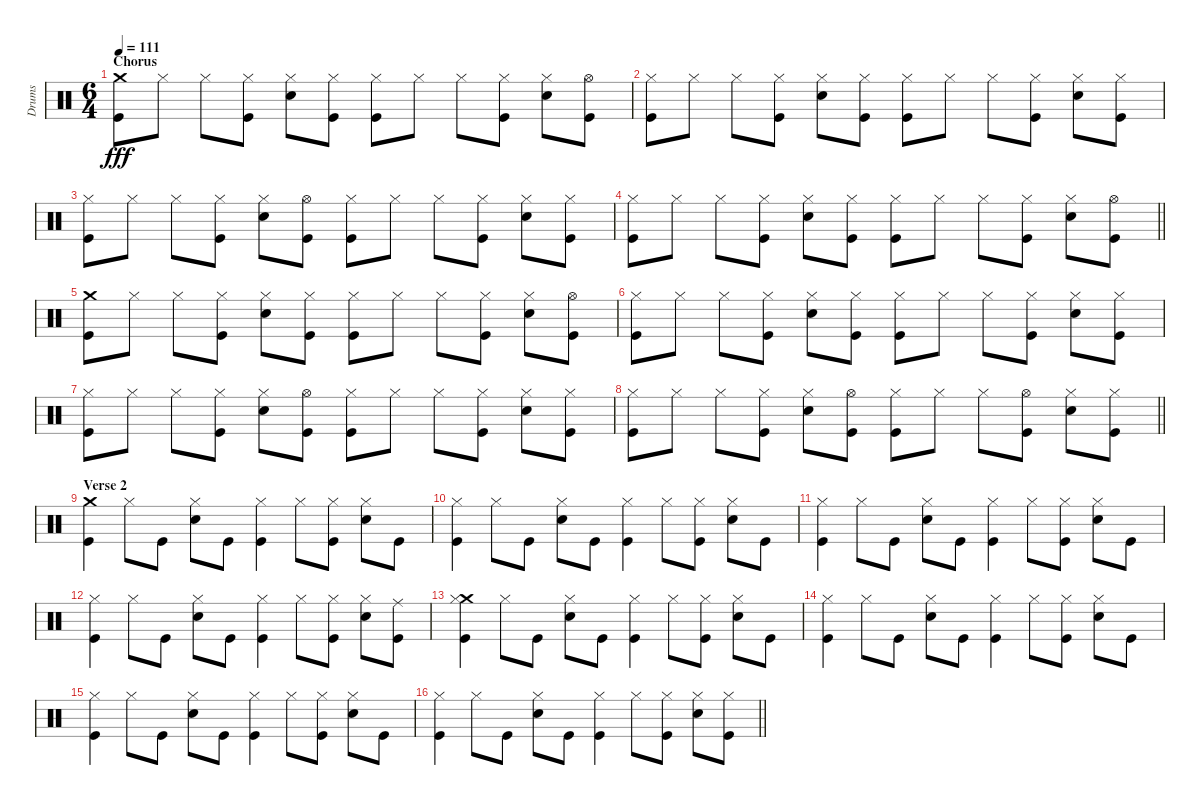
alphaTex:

\track ("Drums" "Drums") {instrument percussion}
\staff {score}
\articulation defaults
\ts (6 4)
\section ("" "Chorus")
\tempo 111
\clef neutral
\ks c
("Crash medium (hit)" "Kick (hit)").8{dy fff} "Hi-Hat (closed)".8 "Hi-Hat (closed)".8 ("Hi-Hat (closed)" "Kick (hit)").8 ("Hi-Hat (closed)" "Snare (hit) 2").8 ("Hi-Hat (closed)" "Kick (hit)").8 ("Hi-Hat (closed)" "Kick (hit)").8 "Hi-Hat (closed)".8 "Hi-Hat (closed)".8 ("Hi-Hat (closed)" "Kick (hit)").8 ("Hi-Hat (closed)" "Snare (hit) 2").8 ("Hi-Hat (open)" "Kick (hit)").8 |
("Hi-Hat (closed)" "Kick (hit)").8 "Hi-Hat (closed)".8 "Hi-Hat (closed)".8 ("Hi-Hat (closed)" "Kick (hit)").8 ("Hi-Hat (closed)" "Snare (hit) 2").8 ("Hi-Hat (closed)" "Kick (hit)").8 ("Hi-Hat (closed)" "Kick (hit)").8 "Hi-Hat (closed)".8 "Hi-Hat (closed)".8 ("Hi-Hat (closed)" "Kick (hit)").8 ("Hi-Hat (closed)" "Snare (hit) 2").8 ("Hi-Hat (closed)" "Kick (hit)").8 |
("Hi-Hat (closed)" "Kick (hit)").8 "Hi-Hat (closed)".8 "Hi-Hat (closed)".8 ("Hi-Hat (closed)" "Kick (hit)").8 ("Hi-Hat (closed)" "Snare (hit) 2").8 ("Hi-Hat (open)" "Kick (hit)").8 ("Hi-Hat (closed)" "Kick (hit)").8 "Hi-Hat (closed)".8 "Hi-Hat (closed)".8 ("Hi-Hat (closed)" "Kick (hit)").8 ("Hi-Hat (closed)" "Snare (hit) 2").8 ("Hi-Hat (closed)" "Kick (hit)").8 |
\barLineRight lightlight
("Hi-Hat (closed)" "Kick (hit)").8 "Hi-Hat (closed)".8 "Hi-Hat (closed)".8 ("Hi-Hat (closed)" "Kick (hit)").8 ("Hi-Hat (closed)" "Snare (hit) 2").8 ("Hi-Hat (closed)" "Kick (hit)").8 ("Hi-Hat (closed)" "Kick (hit)").8 "Hi-Hat (closed)".8 "Hi-Hat (closed)".8 ("Hi-Hat (closed)" "Kick (hit)").8 ("Hi-Hat (closed)" "Snare (hit) 2").8 ("Hi-Hat (open)" "Kick (hit)").8 |
("Crash medium (hit)" "Kick (hit)").8 "Hi-Hat (closed)".8 "Hi-Hat (closed)".8 ("Hi-Hat (closed)" "Kick (hit)").8 ("Hi-Hat (closed)" "Snare (hit) 2").8 ("Hi-Hat (closed)" "Kick (hit)").8 ("Hi-Hat (closed)" "Kick (hit)").8 "Hi-Hat (closed)".8 "Hi-Hat (closed)".8 ("Hi-Hat (closed)" "Kick (hit)").8 ("Hi-Hat (closed)" "Snare (hit) 2").8 ("Hi-Hat (open)" "Kick (hit)").8 |
("Hi-Hat (closed)" "Kick (hit)").8 "Hi-Hat (closed)".8 "Hi-Hat (closed)".8 ("Hi-Hat (closed)" "Kick (hit)").8 ("Hi-Hat (closed)" "Snare (hit) 2").8 ("Hi-Hat (closed)" "Kick (hit)").8 ("Hi-Hat (closed)" "Kick (hit)").8 "Hi-Hat (closed)".8 "Hi-Hat (closed)".8 ("Hi-Hat (closed)" "Kick (hit)").8 ("Hi-Hat (closed)" "Snare (hit) 2").8 ("Hi-Hat (closed)" "Kick (hit)").8 |
("Hi-Hat (closed)" "Kick (hit)").8 "Hi-Hat (closed)".8 "Hi-Hat (closed)".8 ("Hi-Hat (closed)" "Kick (hit)").8 ("Hi-Hat (closed)" "Snare (hit) 2").8 ("Hi-Hat (open)" "Kick (hit)").8 ("Hi-Hat (closed)" "Kick (hit)").8 "Hi-Hat (closed)".8 "Hi-Hat (closed)".8 ("Hi-Hat (closed)" "Kick (hit)").8 ("Hi-Hat (closed)" "Snare (hit) 2").8 ("Hi-Hat (closed)" "Kick (hit)").8 |
\barLineRight lightlight
("Hi-Hat (closed)" "Kick (hit)").8 "Hi-Hat (closed)".8 "Hi-Hat (closed)".8 ("Hi-Hat (closed)" "Kick (hit)").8 ("Hi-Hat (closed)" "Snare (hit) 2").8 ("Hi-Hat (open)" "Kick (hit)").8 ("Hi-Hat (closed)" "Kick (hit)").8 "Hi-Hat (closed)".8 "Hi-Hat (closed)".8 ("Hi-Hat (open)" "Kick (hit)").8 ("Hi-Hat (closed)" "Snare (hit) 2").8 ("Hi-Hat (closed)" "Kick (hit)").8 |
\section ("" "Verse 2")
("Crash medium (hit)" "Kick (hit)").4 "Hi-Hat (closed)".8 "Kick (hit)".8 ("Hi-Hat (closed)" "Snare (hit) 2").8 "Kick (hit)".8 ("Hi-Hat (closed)" "Kick (hit)").4 "Hi-Hat (closed)".8 ("Hi-Hat (closed)" "Kick (hit)").8 ("Hi-Hat (closed)" "Electric Snare (hit)").8 "Kick (hit)".8 |
("Hi-Hat (closed)" "Kick (hit)").4 "Hi-Hat (closed)".8 "Kick (hit)".8 ("Hi-Hat (closed)" "Snare (hit) 2").8 "Kick (hit)".8 ("Hi-Hat (closed)" "Kick (hit)").4 "Hi-Hat (closed)".8 ("Hi-Hat (closed)" "Kick (hit)").8 ("Hi-Hat (closed)" "Electric Snare (hit)").8 "Kick (hit)".8 |
("Hi-Hat (closed)" "Kick (hit)").4 "Hi-Hat (closed)".8 "Kick (hit)".8 ("Hi-Hat (closed)" "Snare (hit) 2").8 "Kick (hit)".8 ("Hi-Hat (closed)" "Kick (hit)").4 "Hi-Hat (closed)".8 ("Hi-Hat (closed)" "Kick (hit)").8 ("Hi-Hat (closed)" "Electric Snare (hit)").8 "Kick (hit)".8 |
("Hi-Hat (closed)" "Kick (hit)").4 "Hi-Hat (closed)".8 "Kick (hit)".8 ("Hi-Hat (closed)" "Snare (hit) 2").8 "Kick (hit)".8 ("Hi-Hat (closed)" "Kick (hit)").4 "Hi-Hat (closed)".8 ("Hi-Hat (closed)" "Kick (hit)").8 ("Hi-Hat (closed)" "Electric Snare (hit)").8 ("Ride (middle)" "Kick (hit)").8 |
("Crash medium (hit)" "Hi-Hat (closed)" "Kick (hit)").4 "Hi-Hat (closed)".8 "Kick (hit)".8 ("Hi-Hat (closed)" "Snare (hit) 2").8 "Kick (hit)".8 ("Hi-Hat (closed)" "Kick (hit)").4 "Hi-Hat (closed)".8 ("Hi-Hat (closed)" "Kick (hit)").8 ("Hi-Hat (closed)" "Electric Snare (hit)").8 "Kick (hit)".8 |
("Hi-Hat (closed)" "Kick (hit)").4 "Hi-Hat (closed)".8 "Kick (hit)".8 ("Hi-Hat (closed)" "Snare (hit) 2").8 "Kick (hit)".8 ("Hi-Hat (closed)" "Kick (hit)").4 "Hi-Hat (closed)".8 ("Hi-Hat (closed)" "Kick (hit)").8 ("Hi-Hat (closed)" "Electric Snare (hit)").8 "Kick (hit)".8 |
("Hi-Hat (closed)" "Kick (hit)").4 "Hi-Hat (closed)".8 "Kick (hit)".8 ("Hi-Hat (closed)" "Snare (hit) 2").8 "Kick (hit)".8 ("Hi-Hat (closed)" "Kick (hit)").4 "Hi-Hat (closed)".8 ("Hi-Hat (closed)" "Kick (hit)").8 ("Hi-Hat (closed)" "Electric Snare (hit)").8 "Kick (hit)".8 |
\barLineRight lightlight
("Hi-Hat (closed)" "Kick (hit)").4 "Hi-Hat (closed)".8 "Kick (hit)".8 ("Hi-Hat (closed)" "Snare (hit) 2").8 "Kick (hit)".8 ("Hi-Hat (closed)" "Kick (hit)").4 "Hi-Hat (closed)".8 ("Hi-Hat (closed)" "Kick (hit)").8 ("Hi-Hat (closed)" "Electric Snare (hit)").8 ("Hi-Hat (closed)" "Kick (hit)").8
